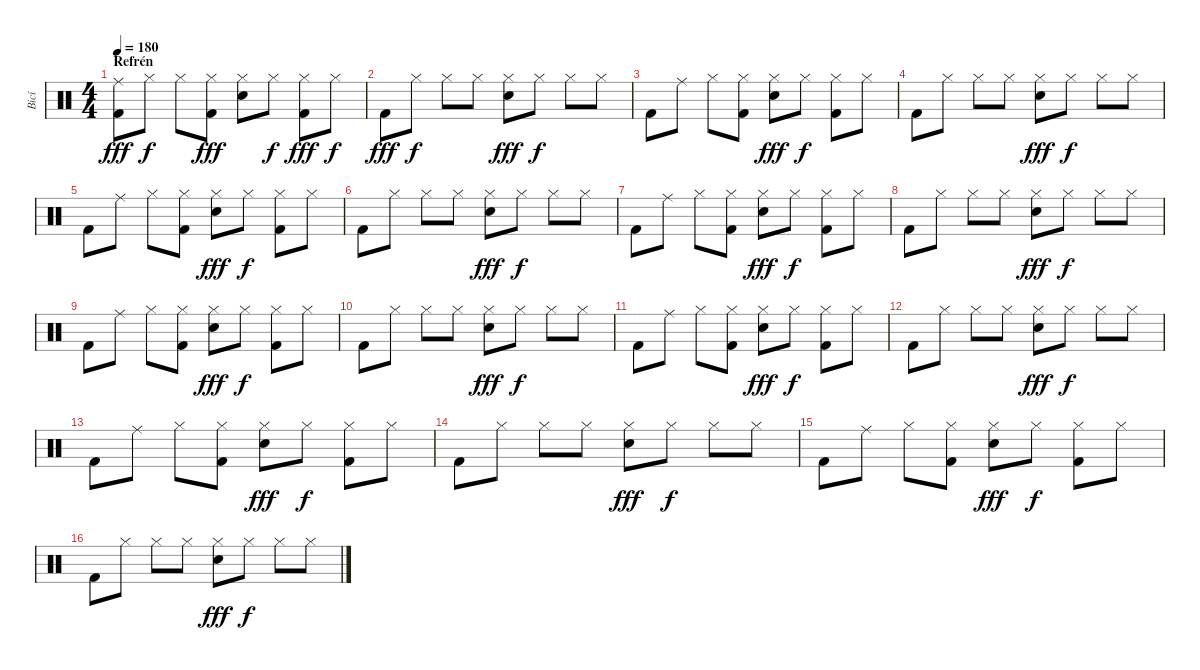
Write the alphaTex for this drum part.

\track ("Bicí" "Bicí") {instrument percussion}
\staff {score}
\articulation defaults
\ts (4 4)
\section ("" "Refrén")
\tempo 180
\clef neutral
\ks c
("Kick (hit) 2" "Ride (middle)").8{dy fff} "Hi-Hat (closed)".8{dy f} "Hi-Hat (closed)".8 ("Kick (hit) 2" "Hi-Hat (closed)").8{dy fff} ("Hand Clap (hit)" "Hi-Hat (closed)").8 "Hi-Hat (closed)".8{dy f} ("Kick (hit) 2" "Hi-Hat (closed)").8{dy fff} "Hi-Hat (closed)".8{dy f} |
"Kick (hit) 2".8{dy fff} "Hi-Hat (closed)".8{dy f} "Hi-Hat (closed)".8 "Hi-Hat (closed)".8 ("Hand Clap (hit)" "Hi-Hat (closed)").8{dy fff} "Hi-Hat (closed)".8{dy f} "Hi-Hat (closed)".8 "Hi-Hat (closed)".8 |
"Kick (hit) 2".8 "Ride (middle)".8 "Hi-Hat (closed)".8 ("Kick (hit) 2" "Hi-Hat (closed)").8 ("Hand Clap (hit)" "Hi-Hat (closed)").8{dy fff} "Hi-Hat (closed)".8{dy f} ("Kick (hit) 2" "Hi-Hat (closed)").8 "Hi-Hat (closed)".8 |
"Kick (hit) 2".8 "Hi-Hat (closed)".8 "Hi-Hat (closed)".8 "Hi-Hat (closed)".8 ("Hand Clap (hit)" "Hi-Hat (closed)").8{dy fff} "Hi-Hat (closed)".8{dy f} "Hi-Hat (closed)".8 "Hi-Hat (closed)".8 |
"Kick (hit) 2".8 "Ride (middle)".8 "Hi-Hat (closed)".8 ("Kick (hit) 2" "Hi-Hat (closed)").8 ("Hand Clap (hit)" "Hi-Hat (closed)").8{dy fff} "Hi-Hat (closed)".8{dy f} ("Kick (hit) 2" "Hi-Hat (closed)").8 "Hi-Hat (closed)".8 |
"Kick (hit) 2".8 "Hi-Hat (closed)".8 "Hi-Hat (closed)".8 "Hi-Hat (closed)".8 ("Hand Clap (hit)" "Hi-Hat (closed)").8{dy fff} "Hi-Hat (closed)".8{dy f} "Hi-Hat (closed)".8 "Hi-Hat (closed)".8 |
"Kick (hit) 2".8 "Ride (middle)".8 "Hi-Hat (closed)".8 ("Kick (hit) 2" "Hi-Hat (closed)").8 ("Hand Clap (hit)" "Hi-Hat (closed)").8{dy fff} "Hi-Hat (closed)".8{dy f} ("Kick (hit) 2" "Hi-Hat (closed)").8 "Hi-Hat (closed)".8 |
"Kick (hit) 2".8 "Hi-Hat (closed)".8 "Hi-Hat (closed)".8 "Hi-Hat (closed)".8 ("Hand Clap (hit)" "Hi-Hat (closed)").8{dy fff} "Hi-Hat (closed)".8{dy f} "Hi-Hat (closed)".8 "Hi-Hat (closed)".8 |
"Kick (hit) 2".8 "Ride (middle)".8 "Hi-Hat (closed)".8 ("Kick (hit) 2" "Hi-Hat (closed)").8 ("Hand Clap (hit)" "Hi-Hat (closed)").8{dy fff} "Hi-Hat (closed)".8{dy f} ("Kick (hit) 2" "Hi-Hat (closed)").8 "Hi-Hat (closed)".8 |
"Kick (hit) 2".8 "Hi-Hat (closed)".8 "Hi-Hat (closed)".8 "Hi-Hat (closed)".8 ("Hand Clap (hit)" "Hi-Hat (closed)").8{dy fff} "Hi-Hat (closed)".8{dy f} "Hi-Hat (closed)".8 "Hi-Hat (closed)".8 |
"Kick (hit) 2".8 "Ride (middle)".8 "Hi-Hat (closed)".8 ("Kick (hit) 2" "Hi-Hat (closed)").8 ("Hand Clap (hit)" "Hi-Hat (closed)").8{dy fff} "Hi-Hat (closed)".8{dy f} ("Kick (hit) 2" "Hi-Hat (closed)").8 "Hi-Hat (closed)".8 |
"Kick (hit) 2".8 "Hi-Hat (closed)".8 "Hi-Hat (closed)".8 "Hi-Hat (closed)".8 ("Hand Clap (hit)" "Hi-Hat (closed)").8{dy fff} "Hi-Hat (closed)".8{dy f} "Hi-Hat (closed)".8 "Hi-Hat (closed)".8 |
"Kick (hit) 2".8 "Ride (middle)".8 "Hi-Hat (closed)".8 ("Kick (hit) 2" "Hi-Hat (closed)").8 ("Hand Clap (hit)" "Hi-Hat (closed)").8{dy fff} "Hi-Hat (closed)".8{dy f} ("Kick (hit) 2" "Hi-Hat (closed)").8 "Hi-Hat (closed)".8 |
"Kick (hit) 2".8 "Hi-Hat (closed)".8 "Hi-Hat (closed)".8 "Hi-Hat (closed)".8 ("Hand Clap (hit)" "Hi-Hat (closed)").8{dy fff} "Hi-Hat (closed)".8{dy f} "Hi-Hat (closed)".8 "Hi-Hat (closed)".8 |
"Kick (hit) 2".8 "Ride (middle)".8 "Hi-Hat (closed)".8 ("Kick (hit) 2" "Hi-Hat (closed)").8 ("Hand Clap (hit)" "Hi-Hat (closed)").8{dy fff} "Hi-Hat (closed)".8{dy f} ("Kick (hit) 2" "Hi-Hat (closed)").8 "Hi-Hat (closed)".8 |
"Kick (hit) 2".8 "Hi-Hat (closed)".8 "Hi-Hat (closed)".8 "Hi-Hat (closed)".8 ("Hand Clap (hit)" "Hi-Hat (closed)").8{dy fff} "Hi-Hat (closed)".8{dy f} "Hi-Hat (closed)".8 "Hi-Hat (closed)".8
